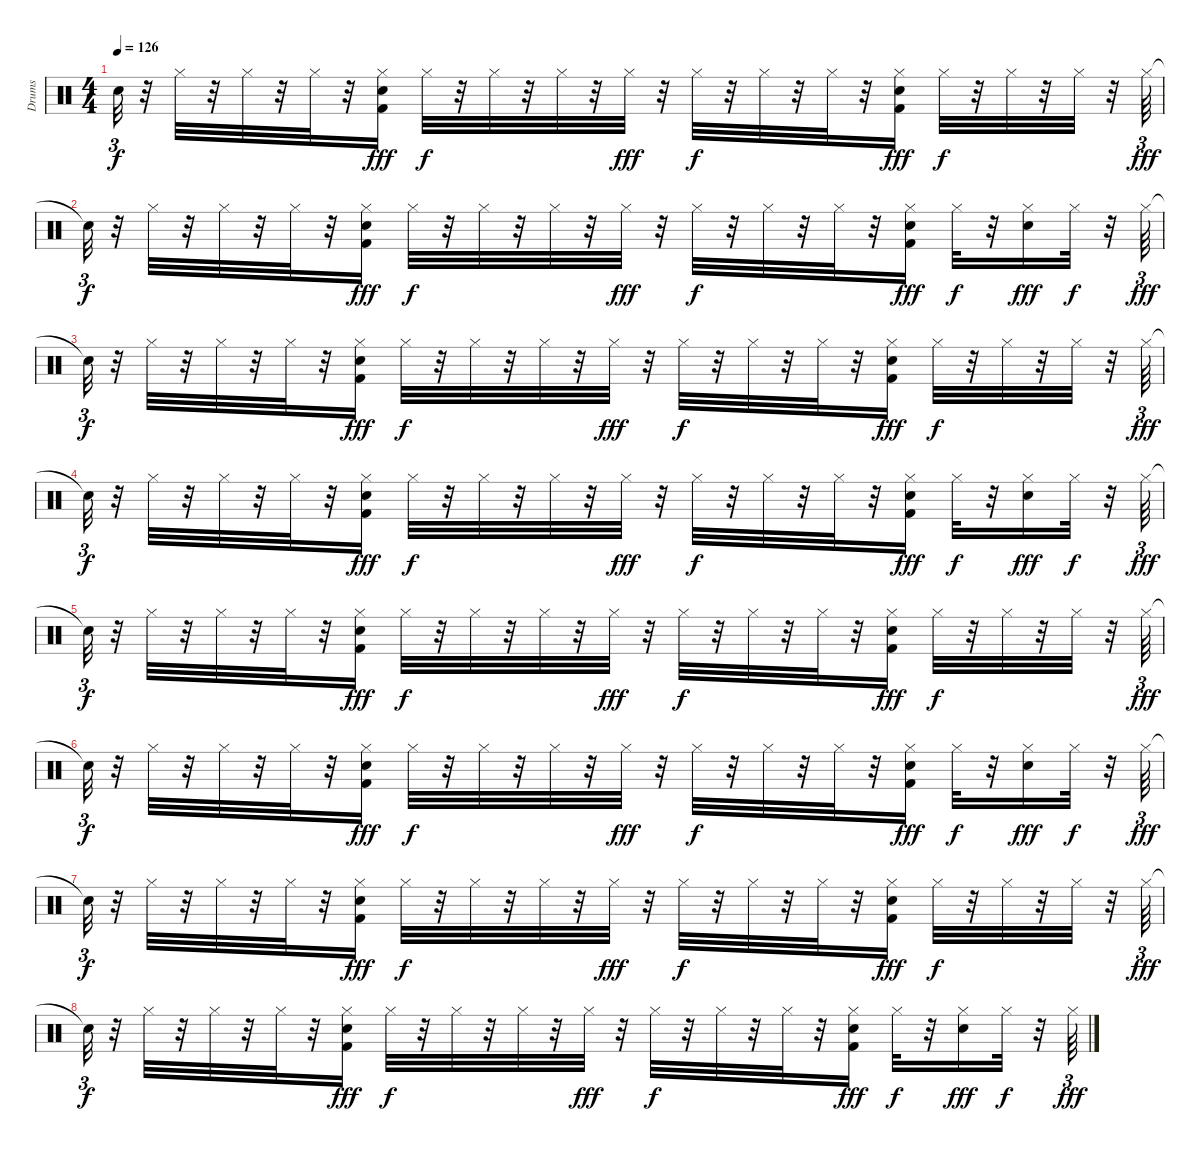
\track ("Drums" "Drums") {instrument percussion}
\staff {score}
\articulation defaults
\ts (4 4)
\tempo 126
\clef neutral
\ks c "Snare (hit)"{t}.32{tu (3 2) dy f}
r.32 "Hi-Hat (closed)".32 r.32 "Hi-Hat (closed)".32 r.32 "Hi-Hat (closed)".32 r.32 ("Hand Clap (hit)" "Hi-Hat (closed)" "Kick (hit) 2").16{dy fff} "Hi-Hat (closed)".32{dy f} r.32 "Hi-Hat (closed)".32 r.32 "Hi-Hat (closed)".32 r.32 "Hi-Hat (closed)".32{dy fff} r.32 "Hi-Hat (closed)".32{dy f} r.32 "Hi-Hat (closed)".32 r.32 "Hi-Hat (closed)".32 r.32 ("Hi-Hat (closed)" "Kick (hit) 2" "Hand Clap (hit)").16{dy fff} "Hi-Hat (closed)".32{dy f} r.32 "Hi-Hat (closed)".32 r.32 "Hi-Hat (closed)".32 r.32 "Hi-Hat (closed)".64{tu (3 2) dy fff} |
"Snare (hit)"{t}.32{tu (3 2) dy f} r.32 "Hi-Hat (closed)".32 r.32 "Hi-Hat (closed)".32 r.32 "Hi-Hat (closed)".32 r.32 ("Hand Clap (hit)" "Hi-Hat (closed)" "Kick (hit) 2").16{dy fff} "Hi-Hat (closed)".32{dy f} r.32 "Hi-Hat (closed)".32 r.32 "Hi-Hat (closed)".32 r.32 "Hi-Hat (closed)".32{dy fff} r.32 "Hi-Hat (closed)".32{dy f} r.32 "Hi-Hat (closed)".32 r.32 "Hi-Hat (closed)".32 r.32 ("Hand Clap (hit)" "Hi-Hat (closed)" "Kick (hit) 2").16{dy fff} "Hi-Hat (closed)".32{dy f} r.32 ("Hand Clap (hit)" "Hi-Hat (closed)").16{dy fff} "Hi-Hat (closed)".32{dy f} r.32 "Hi-Hat (closed)".64{tu (3 2) dy fff} |
"Snare (hit)"{t}.32{tu (3 2) dy f} r.32 "Hi-Hat (closed)".32 r.32 "Hi-Hat (closed)".32 r.32 "Hi-Hat (closed)".32 r.32 ("Hi-Hat (closed)" "Hand Clap (hit)" "Kick (hit) 2").16{dy fff} "Hi-Hat (closed)".32{dy f} r.32 "Hi-Hat (closed)".32 r.32 "Hi-Hat (closed)".32 r.32 "Hi-Hat (closed)".32{dy fff} r.32 "Hi-Hat (closed)".32{dy f} r.32 "Hi-Hat (closed)".32 r.32 "Hi-Hat (closed)".32 r.32 ("Hand Clap (hit)" "Hi-Hat (closed)" "Kick (hit) 2").16{dy fff} "Hi-Hat (closed)".32{dy f} r.32 "Hi-Hat (closed)".32 r.32 "Hi-Hat (closed)".32 r.32 "Hi-Hat (closed)".64{tu (3 2) dy fff} |
"Snare (hit)"{t}.32{tu (3 2) dy f} r.32 "Hi-Hat (closed)".32 r.32 "Hi-Hat (closed)".32 r.32 "Hi-Hat (closed)".32 r.32 ("Hi-Hat (closed)" "Kick (hit) 2" "Hand Clap (hit)").16{dy fff} "Hi-Hat (closed)".32{dy f} r.32 "Hi-Hat (closed)".32 r.32 "Hi-Hat (closed)".32 r.32 "Hi-Hat (closed)".32{dy fff} r.32 "Hi-Hat (closed)".32{dy f} r.32 "Hi-Hat (closed)".32 r.32 "Hi-Hat (closed)".32 r.32 ("Kick (hit) 2" "Hand Clap (hit)" "Hi-Hat (closed)").16{dy fff} "Hi-Hat (closed)".32{dy f} r.32 ("Hand Clap (hit)" "Hi-Hat (closed)").16{dy fff} "Hi-Hat (closed)".32{dy f} r.32 "Hi-Hat (closed)".64{tu (3 2) dy fff} |
"Snare (hit)"{t}.32{tu (3 2) dy f} r.32 "Hi-Hat (closed)".32 r.32 "Hi-Hat (closed)".32 r.32 "Hi-Hat (closed)".32 r.32 ("Hand Clap (hit)" "Hi-Hat (closed)" "Kick (hit) 2").16{dy fff} "Hi-Hat (closed)".32{dy f} r.32 "Hi-Hat (closed)".32 r.32 "Hi-Hat (closed)".32 r.32 "Hi-Hat (closed)".32{dy fff} r.32 "Hi-Hat (closed)".32{dy f} r.32 "Hi-Hat (closed)".32 r.32 "Hi-Hat (closed)".32 r.32 ("Hand Clap (hit)" "Hi-Hat (closed)" "Kick (hit) 2").16{dy fff} "Hi-Hat (closed)".32{dy f} r.32 "Hi-Hat (closed)".32 r.32 "Hi-Hat (closed)".32 r.32 "Hi-Hat (closed)".64{tu (3 2) dy fff} |
"Snare (hit)"{t}.32{tu (3 2) dy f} r.32 "Hi-Hat (closed)".32 r.32 "Hi-Hat (closed)".32 r.32 "Hi-Hat (closed)".32 r.32 ("Hand Clap (hit)" "Kick (hit) 2" "Hi-Hat (closed)").16{dy fff} "Hi-Hat (closed)".32{dy f} r.32 "Hi-Hat (closed)".32 r.32 "Hi-Hat (closed)".32 r.32 "Hi-Hat (closed)".32{dy fff} r.32 "Hi-Hat (closed)".32{dy f} r.32 "Hi-Hat (closed)".32 r.32 "Hi-Hat (closed)".32 r.32 ("Kick (hit) 2" "Hi-Hat (closed)" "Hand Clap (hit)").16{dy fff} "Hi-Hat (closed)".32{dy f} r.32 ("Hand Clap (hit)" "Hi-Hat (closed)").16{dy fff} "Hi-Hat (closed)".32{dy f} r.32 "Hi-Hat (closed)".64{tu (3 2) dy fff} |
"Snare (hit)"{t}.32{tu (3 2) dy f} r.32 "Hi-Hat (closed)".32 r.32 "Hi-Hat (closed)".32 r.32 "Hi-Hat (closed)".32 r.32 ("Hi-Hat (closed)" "Hand Clap (hit)" "Kick (hit) 2").16{dy fff} "Hi-Hat (closed)".32{dy f} r.32 "Hi-Hat (closed)".32 r.32 "Hi-Hat (closed)".32 r.32 "Hi-Hat (closed)".32{dy fff} r.32 "Hi-Hat (closed)".32{dy f} r.32 "Hi-Hat (closed)".32 r.32 "Hi-Hat (closed)".32 r.32 ("Kick (hit) 2" "Hi-Hat (closed)" "Hand Clap (hit)").16{dy fff} "Hi-Hat (closed)".32{dy f} r.32 "Hi-Hat (closed)".32 r.32 "Hi-Hat (closed)".32 r.32 "Hi-Hat (closed)".64{tu (3 2) dy fff} |
"Snare (hit)"{t}.32{tu (3 2) dy f} r.32 "Hi-Hat (closed)".32 r.32 "Hi-Hat (closed)".32 r.32 "Hi-Hat (closed)".32 r.32 ("Kick (hit) 2" "Hand Clap (hit)" "Hi-Hat (closed)").16{dy fff} "Hi-Hat (closed)".32{dy f} r.32 "Hi-Hat (closed)".32 r.32 "Hi-Hat (closed)".32 r.32 "Hi-Hat (closed)".32{dy fff} r.32 "Hi-Hat (closed)".32{dy f} r.32 "Hi-Hat (closed)".32 r.32 "Hi-Hat (closed)".32 r.32 ("Kick (hit) 2" "Hi-Hat (closed)" "Hand Clap (hit)").16{dy fff} "Hi-Hat (closed)".32{dy f} r.32 ("Hi-Hat (closed)" "Hand Clap (hit)").16{dy fff} "Hi-Hat (closed)".32{dy f} r.32 "Hi-Hat (closed)".64{tu (3 2) dy fff}
